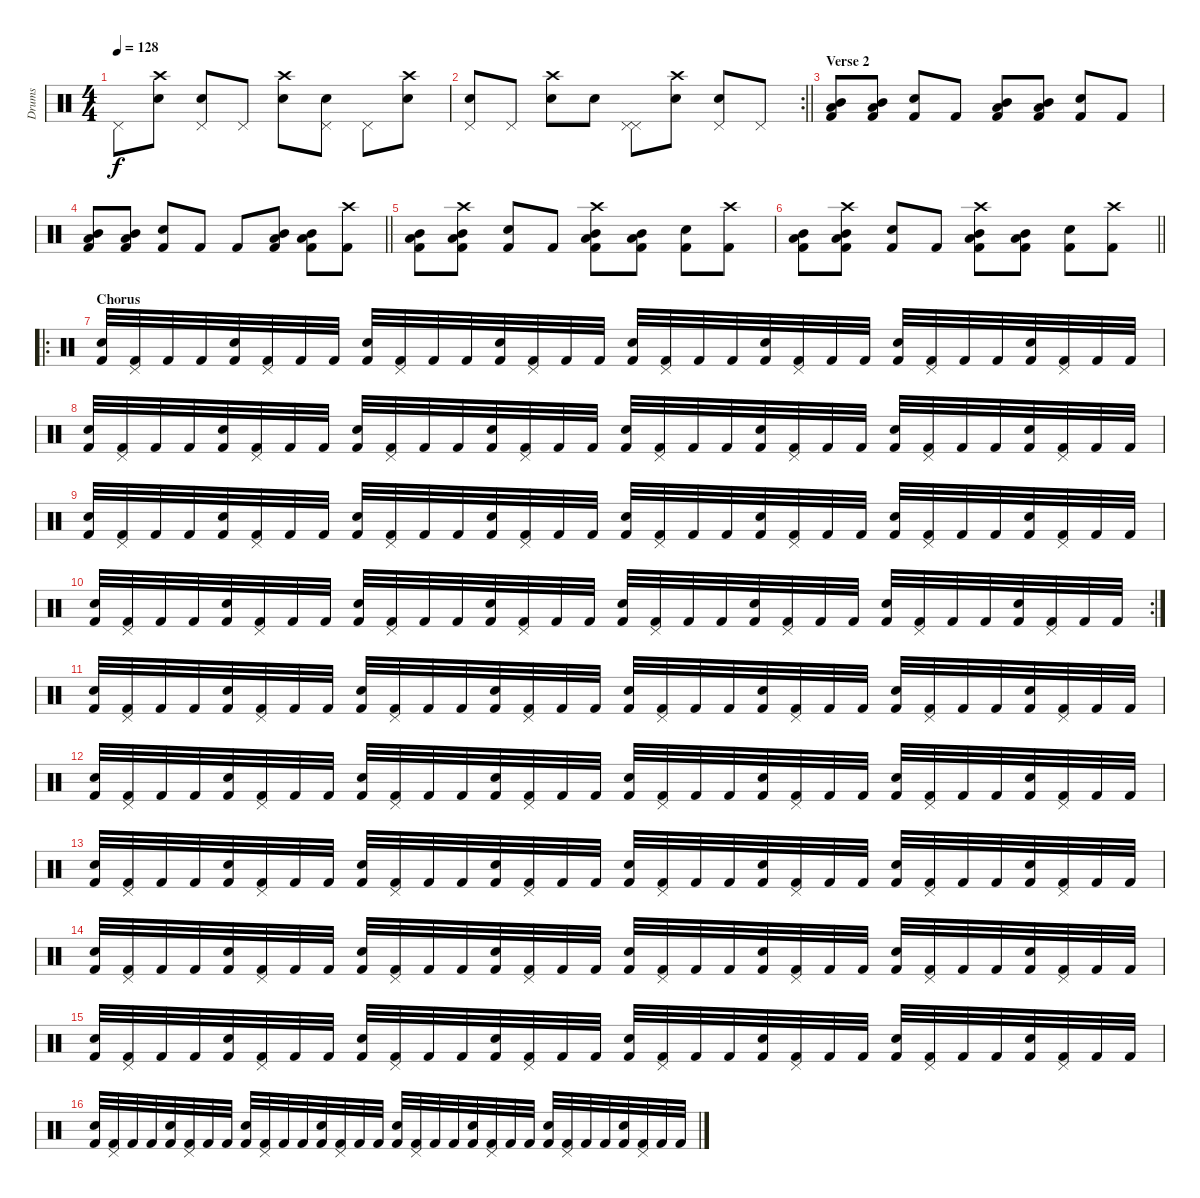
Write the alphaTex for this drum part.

\track ("Drums" "Drums") {instrument percussion}
\staff {score}
\articulation defaults
\ts (4 4)
\tempo 128
\clef neutral
\ks c "Pedal Hi-Hat (hit)".8{dy f}
("Crash high (hit)" "Electric Snare (hit)").8 ("Electric Snare (hit)" "Pedal Hi-Hat (hit)").8 "Pedal Hi-Hat (hit)".8 ("Crash high (hit)" "Electric Snare (hit)").8 ("Electric Snare (hit)" "Pedal Hi-Hat (hit)").8 "Pedal Hi-Hat (hit)".8 ("Crash high (hit)" "Electric Snare (hit)").8 |
\rc 2
\barLineRight lightlight
("Electric Snare (hit)" "Pedal Hi-Hat (hit)").8 "Pedal Hi-Hat (hit)".8 ("Crash high (hit)" "Electric Snare (hit)").8 "Electric Snare (hit)".8 ("Pedal Hi-Hat (hit)" "Pedal Hi-Hat (hit)").8 ("Crash high (hit)" "Electric Snare (hit)").8 ("Electric Snare (hit)" "Pedal Hi-Hat (hit)").8 "Pedal Hi-Hat (hit)".8 |
\section ("" "Verse 2")
("Kick (hit) 2" "Low Tom (hit)" "Mid Tom (hit)").8 ("Kick (hit) 2" "Low Tom (hit)" "Mid Tom (hit)").8 ("Kick (hit) 2" "Snare (hit) 2").8 "Kick (hit) 2".8 ("Kick (hit) 2" "Low Tom (hit)" "Mid Tom (hit)").8 ("Kick (hit) 2" "Low Tom (hit)" "Mid Tom (hit)").8 ("Kick (hit) 2" "Snare (hit) 2").8 "Kick (hit) 2".8 |
\barLineRight lightlight
("Kick (hit) 2" "Low Tom (hit)" "Mid Tom (hit)").8 ("Kick (hit) 2" "Low Tom (hit)" "Mid Tom (hit)").8 ("Kick (hit) 2" "Snare (hit) 2").8 "Kick (hit) 2".8 "Kick (hit) 2".8 ("Kick (hit) 2" "Low Tom (hit)" "Mid Tom (hit)").8 ("Kick (hit) 2" "Low Tom (hit)" "Mid Tom (hit)").8 ("Kick (hit) 2" "Crash high (hit)").8 |
("Kick (hit) 2" "Low Tom (hit)" "Mid Tom (hit)").8 ("Kick (hit) 2" "Low Tom (hit)" "Mid Tom (hit)" "Crash high (hit)").8 ("Kick (hit) 2" "Snare (hit) 2").8 "Kick (hit) 2".8 ("Kick (hit) 2" "Low Tom (hit)" "Mid Tom (hit)" "Crash high (hit)").8 ("Kick (hit) 2" "Low Tom (hit)" "Mid Tom (hit)").8 ("Kick (hit) 2" "Snare (hit) 2").8 ("Kick (hit) 2" "Crash high (hit)").8 |
\barLineRight lightlight
("Kick (hit) 2" "Low Tom (hit)" "Mid Tom (hit)").8 ("Kick (hit) 2" "Low Tom (hit)" "Mid Tom (hit)" "Crash high (hit)").8 ("Kick (hit) 2" "Snare (hit) 2").8 "Kick (hit) 2".8 ("Kick (hit) 2" "Low Tom (hit)" "Mid Tom (hit)" "Crash high (hit)").8 ("Kick (hit) 2" "Low Tom (hit)" "Mid Tom (hit)").8 ("Kick (hit) 2" "Snare (hit) 2").8 ("Kick (hit) 2" "Crash high (hit)").8 |
\ro
\section ("" "Chorus")
("Kick (hit) 2" "Electric Snare (hit)").32 ("Kick (hit) 2" "Pedal Hi-Hat (hit)").32 "Kick (hit) 2".32 "Kick (hit) 2".32 ("Kick (hit) 2" "Electric Snare (hit)").32 ("Kick (hit) 2" "Pedal Hi-Hat (hit)").32 "Kick (hit) 2".32 "Kick (hit) 2".32 ("Kick (hit) 2" "Electric Snare (hit)").32 ("Kick (hit) 2" "Pedal Hi-Hat (hit)").32 "Kick (hit) 2".32 "Kick (hit) 2".32 ("Kick (hit) 2" "Electric Snare (hit)").32 ("Kick (hit) 2" "Pedal Hi-Hat (hit)").32 "Kick (hit) 2".32 "Kick (hit) 2".32 ("Kick (hit) 2" "Electric Snare (hit)").32 ("Kick (hit) 2" "Pedal Hi-Hat (hit)").32 "Kick (hit) 2".32 "Kick (hit) 2".32 ("Kick (hit) 2" "Electric Snare (hit)").32 ("Kick (hit) 2" "Pedal Hi-Hat (hit)").32 "Kick (hit) 2".32 "Kick (hit) 2".32 ("Kick (hit) 2" "Electric Snare (hit)").32 ("Kick (hit) 2" "Pedal Hi-Hat (hit)").32 "Kick (hit) 2".32 "Kick (hit) 2".32 ("Kick (hit) 2" "Electric Snare (hit)").32 ("Kick (hit) 2" "Pedal Hi-Hat (hit)").32 "Kick (hit) 2".32 "Kick (hit) 2".32 |
("Kick (hit) 2" "Electric Snare (hit)").32 ("Kick (hit) 2" "Pedal Hi-Hat (hit)").32 "Kick (hit) 2".32 "Kick (hit) 2".32 ("Kick (hit) 2" "Electric Snare (hit)").32 ("Kick (hit) 2" "Pedal Hi-Hat (hit)").32 "Kick (hit) 2".32 "Kick (hit) 2".32 ("Kick (hit) 2" "Electric Snare (hit)").32 ("Kick (hit) 2" "Pedal Hi-Hat (hit)").32 "Kick (hit) 2".32 "Kick (hit) 2".32 ("Kick (hit) 2" "Electric Snare (hit)").32 ("Kick (hit) 2" "Pedal Hi-Hat (hit)").32 "Kick (hit) 2".32 "Kick (hit) 2".32 ("Kick (hit) 2" "Electric Snare (hit)").32 ("Kick (hit) 2" "Pedal Hi-Hat (hit)").32 "Kick (hit) 2".32 "Kick (hit) 2".32 ("Kick (hit) 2" "Electric Snare (hit)").32 ("Kick (hit) 2" "Pedal Hi-Hat (hit)").32 "Kick (hit) 2".32 "Kick (hit) 2".32 ("Kick (hit) 2" "Electric Snare (hit)").32 ("Kick (hit) 2" "Pedal Hi-Hat (hit)").32 "Kick (hit) 2".32 "Kick (hit) 2".32 ("Kick (hit) 2" "Electric Snare (hit)").32 ("Kick (hit) 2" "Pedal Hi-Hat (hit)").32 "Kick (hit) 2".32 "Kick (hit) 2".32 |
("Kick (hit) 2" "Electric Snare (hit)").32 ("Kick (hit) 2" "Pedal Hi-Hat (hit)").32 "Kick (hit) 2".32 "Kick (hit) 2".32 ("Kick (hit) 2" "Electric Snare (hit)").32 ("Kick (hit) 2" "Pedal Hi-Hat (hit)").32 "Kick (hit) 2".32 "Kick (hit) 2".32 ("Kick (hit) 2" "Electric Snare (hit)").32 ("Kick (hit) 2" "Pedal Hi-Hat (hit)").32 "Kick (hit) 2".32 "Kick (hit) 2".32 ("Kick (hit) 2" "Electric Snare (hit)").32 ("Kick (hit) 2" "Pedal Hi-Hat (hit)").32 "Kick (hit) 2".32 "Kick (hit) 2".32 ("Kick (hit) 2" "Electric Snare (hit)").32 ("Kick (hit) 2" "Pedal Hi-Hat (hit)").32 "Kick (hit) 2".32 "Kick (hit) 2".32 ("Kick (hit) 2" "Electric Snare (hit)").32 ("Kick (hit) 2" "Pedal Hi-Hat (hit)").32 "Kick (hit) 2".32 "Kick (hit) 2".32 ("Kick (hit) 2" "Electric Snare (hit)").32 ("Kick (hit) 2" "Pedal Hi-Hat (hit)").32 "Kick (hit) 2".32 "Kick (hit) 2".32 ("Kick (hit) 2" "Electric Snare (hit)").32 ("Kick (hit) 2" "Pedal Hi-Hat (hit)").32 "Kick (hit) 2".32 "Kick (hit) 2".32 |
\rc 2
("Kick (hit) 2" "Electric Snare (hit)").32 ("Kick (hit) 2" "Pedal Hi-Hat (hit)").32 "Kick (hit) 2".32 "Kick (hit) 2".32 ("Kick (hit) 2" "Electric Snare (hit)").32 ("Kick (hit) 2" "Pedal Hi-Hat (hit)").32 "Kick (hit) 2".32 "Kick (hit) 2".32 ("Kick (hit) 2" "Electric Snare (hit)").32 ("Kick (hit) 2" "Pedal Hi-Hat (hit)").32 "Kick (hit) 2".32 "Kick (hit) 2".32 ("Kick (hit) 2" "Electric Snare (hit)").32 ("Kick (hit) 2" "Pedal Hi-Hat (hit)").32 "Kick (hit) 2".32 "Kick (hit) 2".32 ("Kick (hit) 2" "Electric Snare (hit)").32 ("Kick (hit) 2" "Pedal Hi-Hat (hit)").32 "Kick (hit) 2".32 "Kick (hit) 2".32 ("Kick (hit) 2" "Electric Snare (hit)").32 ("Kick (hit) 2" "Pedal Hi-Hat (hit)").32 "Kick (hit) 2".32 "Kick (hit) 2".32 ("Kick (hit) 2" "Electric Snare (hit)").32 ("Kick (hit) 2" "Pedal Hi-Hat (hit)").32 "Kick (hit) 2".32 "Kick (hit) 2".32 ("Kick (hit) 2" "Electric Snare (hit)").32 ("Kick (hit) 2" "Pedal Hi-Hat (hit)").32 "Kick (hit) 2".32 "Kick (hit) 2".32 |
("Kick (hit) 2" "Electric Snare (hit)").32 ("Kick (hit) 2" "Pedal Hi-Hat (hit)").32 "Kick (hit) 2".32 "Kick (hit) 2".32 ("Kick (hit) 2" "Electric Snare (hit)").32 ("Kick (hit) 2" "Pedal Hi-Hat (hit)").32 "Kick (hit) 2".32 "Kick (hit) 2".32 ("Kick (hit) 2" "Electric Snare (hit)").32 ("Kick (hit) 2" "Pedal Hi-Hat (hit)").32 "Kick (hit) 2".32 "Kick (hit) 2".32 ("Kick (hit) 2" "Electric Snare (hit)").32 ("Kick (hit) 2" "Pedal Hi-Hat (hit)").32 "Kick (hit) 2".32 "Kick (hit) 2".32 ("Kick (hit) 2" "Electric Snare (hit)").32 ("Kick (hit) 2" "Pedal Hi-Hat (hit)").32 "Kick (hit) 2".32 "Kick (hit) 2".32 ("Kick (hit) 2" "Electric Snare (hit)").32 ("Kick (hit) 2" "Pedal Hi-Hat (hit)").32 "Kick (hit) 2".32 "Kick (hit) 2".32 ("Kick (hit) 2" "Electric Snare (hit)").32 ("Kick (hit) 2" "Pedal Hi-Hat (hit)").32 "Kick (hit) 2".32 "Kick (hit) 2".32 ("Kick (hit) 2" "Electric Snare (hit)").32 ("Kick (hit) 2" "Pedal Hi-Hat (hit)").32 "Kick (hit) 2".32 "Kick (hit) 2".32 |
("Kick (hit) 2" "Electric Snare (hit)").32 ("Kick (hit) 2" "Pedal Hi-Hat (hit)").32 "Kick (hit) 2".32 "Kick (hit) 2".32 ("Kick (hit) 2" "Electric Snare (hit)").32 ("Kick (hit) 2" "Pedal Hi-Hat (hit)").32 "Kick (hit) 2".32 "Kick (hit) 2".32 ("Kick (hit) 2" "Electric Snare (hit)").32 ("Kick (hit) 2" "Pedal Hi-Hat (hit)").32 "Kick (hit) 2".32 "Kick (hit) 2".32 ("Kick (hit) 2" "Electric Snare (hit)").32 ("Kick (hit) 2" "Pedal Hi-Hat (hit)").32 "Kick (hit) 2".32 "Kick (hit) 2".32 ("Kick (hit) 2" "Electric Snare (hit)").32 ("Kick (hit) 2" "Pedal Hi-Hat (hit)").32 "Kick (hit) 2".32 "Kick (hit) 2".32 ("Kick (hit) 2" "Electric Snare (hit)").32 ("Kick (hit) 2" "Pedal Hi-Hat (hit)").32 "Kick (hit) 2".32 "Kick (hit) 2".32 ("Kick (hit) 2" "Electric Snare (hit)").32 ("Kick (hit) 2" "Pedal Hi-Hat (hit)").32 "Kick (hit) 2".32 "Kick (hit) 2".32 ("Kick (hit) 2" "Electric Snare (hit)").32 ("Kick (hit) 2" "Pedal Hi-Hat (hit)").32 "Kick (hit) 2".32 "Kick (hit) 2".32 |
("Kick (hit) 2" "Electric Snare (hit)").32 ("Kick (hit) 2" "Pedal Hi-Hat (hit)").32 "Kick (hit) 2".32 "Kick (hit) 2".32 ("Kick (hit) 2" "Electric Snare (hit)").32 ("Kick (hit) 2" "Pedal Hi-Hat (hit)").32 "Kick (hit) 2".32 "Kick (hit) 2".32 ("Kick (hit) 2" "Electric Snare (hit)").32 ("Kick (hit) 2" "Pedal Hi-Hat (hit)").32 "Kick (hit) 2".32 "Kick (hit) 2".32 ("Kick (hit) 2" "Electric Snare (hit)").32 ("Kick (hit) 2" "Pedal Hi-Hat (hit)").32 "Kick (hit) 2".32 "Kick (hit) 2".32 ("Kick (hit) 2" "Electric Snare (hit)").32 ("Kick (hit) 2" "Pedal Hi-Hat (hit)").32 "Kick (hit) 2".32 "Kick (hit) 2".32 ("Kick (hit) 2" "Electric Snare (hit)").32 ("Kick (hit) 2" "Pedal Hi-Hat (hit)").32 "Kick (hit) 2".32 "Kick (hit) 2".32 ("Kick (hit) 2" "Electric Snare (hit)").32 ("Kick (hit) 2" "Pedal Hi-Hat (hit)").32 "Kick (hit) 2".32 "Kick (hit) 2".32 ("Kick (hit) 2" "Electric Snare (hit)").32 ("Kick (hit) 2" "Pedal Hi-Hat (hit)").32 "Kick (hit) 2".32 "Kick (hit) 2".32 |
("Kick (hit) 2" "Electric Snare (hit)").32 ("Kick (hit) 2" "Pedal Hi-Hat (hit)").32 "Kick (hit) 2".32 "Kick (hit) 2".32 ("Kick (hit) 2" "Electric Snare (hit)").32 ("Kick (hit) 2" "Pedal Hi-Hat (hit)").32 "Kick (hit) 2".32 "Kick (hit) 2".32 ("Kick (hit) 2" "Electric Snare (hit)").32 ("Kick (hit) 2" "Pedal Hi-Hat (hit)").32 "Kick (hit) 2".32 "Kick (hit) 2".32 ("Kick (hit) 2" "Electric Snare (hit)").32 ("Kick (hit) 2" "Pedal Hi-Hat (hit)").32 "Kick (hit) 2".32 "Kick (hit) 2".32 ("Kick (hit) 2" "Electric Snare (hit)").32 ("Kick (hit) 2" "Pedal Hi-Hat (hit)").32 "Kick (hit) 2".32 "Kick (hit) 2".32 ("Kick (hit) 2" "Electric Snare (hit)").32 ("Kick (hit) 2" "Pedal Hi-Hat (hit)").32 "Kick (hit) 2".32 "Kick (hit) 2".32 ("Kick (hit) 2" "Electric Snare (hit)").32 ("Kick (hit) 2" "Pedal Hi-Hat (hit)").32 "Kick (hit) 2".32 "Kick (hit) 2".32 ("Kick (hit) 2" "Electric Snare (hit)").32 ("Kick (hit) 2" "Pedal Hi-Hat (hit)").32 "Kick (hit) 2".32 "Kick (hit) 2".32 |
("Kick (hit) 2" "Electric Snare (hit)").32 ("Kick (hit) 2" "Pedal Hi-Hat (hit)").32 "Kick (hit) 2".32 "Kick (hit) 2".32 ("Kick (hit) 2" "Electric Snare (hit)").32 ("Kick (hit) 2" "Pedal Hi-Hat (hit)").32 "Kick (hit) 2".32 "Kick (hit) 2".32 ("Kick (hit) 2" "Electric Snare (hit)").32 ("Kick (hit) 2" "Pedal Hi-Hat (hit)").32 "Kick (hit) 2".32 "Kick (hit) 2".32 ("Kick (hit) 2" "Electric Snare (hit)").32 ("Kick (hit) 2" "Pedal Hi-Hat (hit)").32 "Kick (hit) 2".32 "Kick (hit) 2".32 ("Kick (hit) 2" "Electric Snare (hit)").32 ("Kick (hit) 2" "Pedal Hi-Hat (hit)").32 "Kick (hit) 2".32 "Kick (hit) 2".32 ("Kick (hit) 2" "Electric Snare (hit)").32 ("Kick (hit) 2" "Pedal Hi-Hat (hit)").32 "Kick (hit) 2".32 "Kick (hit) 2".32 ("Kick (hit) 2" "Electric Snare (hit)").32 ("Kick (hit) 2" "Pedal Hi-Hat (hit)").32 "Kick (hit) 2".32 "Kick (hit) 2".32 ("Kick (hit) 2" "Electric Snare (hit)").32 ("Kick (hit) 2" "Pedal Hi-Hat (hit)").32 "Kick (hit) 2".32 "Kick (hit) 2".32 |
("Kick (hit) 2" "Electric Snare (hit)").32 ("Kick (hit) 2" "Pedal Hi-Hat (hit)").32 "Kick (hit) 2".32 "Kick (hit) 2".32 ("Kick (hit) 2" "Electric Snare (hit)").32 ("Kick (hit) 2" "Pedal Hi-Hat (hit)").32 "Kick (hit) 2".32 "Kick (hit) 2".32 ("Kick (hit) 2" "Electric Snare (hit)").32 ("Kick (hit) 2" "Pedal Hi-Hat (hit)").32 "Kick (hit) 2".32 "Kick (hit) 2".32 ("Kick (hit) 2" "Electric Snare (hit)").32 ("Kick (hit) 2" "Pedal Hi-Hat (hit)").32 "Kick (hit) 2".32 "Kick (hit) 2".32 ("Kick (hit) 2" "Electric Snare (hit)").32 ("Kick (hit) 2" "Pedal Hi-Hat (hit)").32 "Kick (hit) 2".32 "Kick (hit) 2".32 ("Kick (hit) 2" "Electric Snare (hit)").32 ("Kick (hit) 2" "Pedal Hi-Hat (hit)").32 "Kick (hit) 2".32 "Kick (hit) 2".32 ("Kick (hit) 2" "Electric Snare (hit)").32 ("Kick (hit) 2" "Pedal Hi-Hat (hit)").32 "Kick (hit) 2".32 "Kick (hit) 2".32 ("Kick (hit) 2" "Electric Snare (hit)").32 ("Kick (hit) 2" "Pedal Hi-Hat (hit)").32 "Kick (hit) 2".32 "Kick (hit) 2".32
